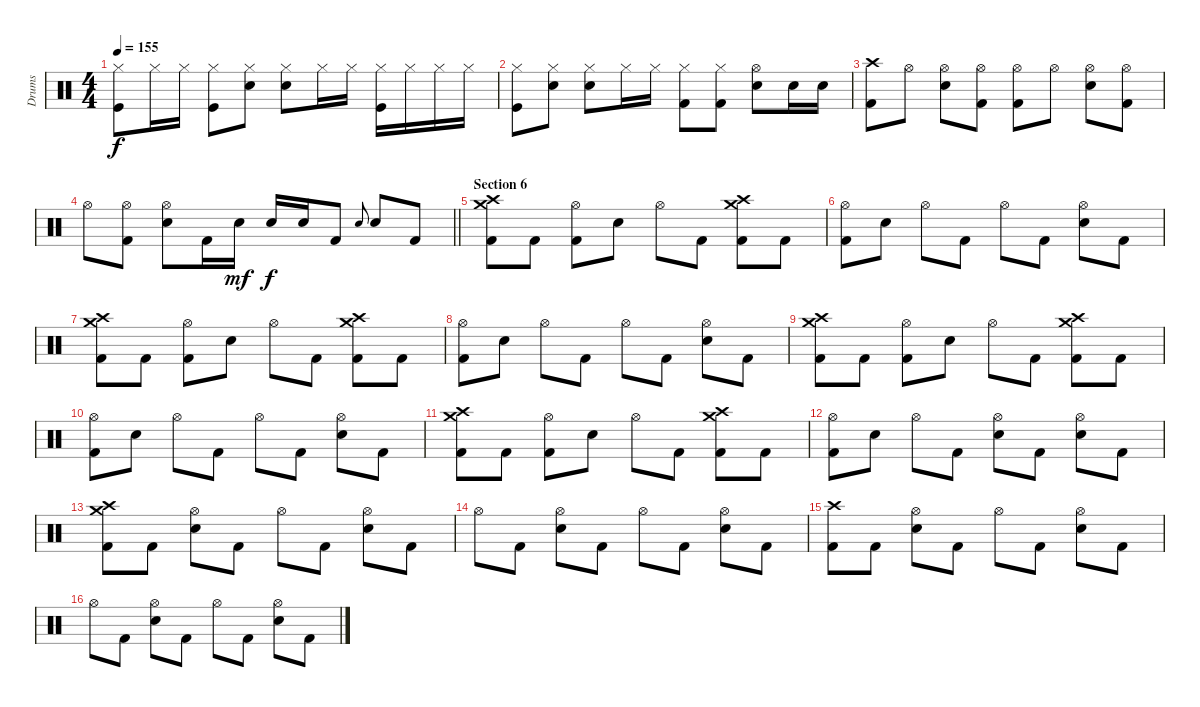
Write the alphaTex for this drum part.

\track ("Drums" "Drums") {instrument percussion}
\staff {score}
\articulation defaults
\ts (4 4)
\tempo 155
\clef neutral
\ks c
("Hi-Hat (closed)" "Kick (hit)").8{dy f} "Hi-Hat (closed)".16 "Hi-Hat (closed)".16 ("Hi-Hat (closed)" "Kick (hit)").8 ("Hi-Hat (closed)" "Electric Snare (hit)").8 ("Hi-Hat (closed)" "Electric Snare (hit)").8 "Hi-Hat (closed)".16 "Hi-Hat (closed)".16 ("Hi-Hat (closed)" "Kick (hit)").16 "Hi-Hat (closed)".16 "Hi-Hat (closed)".16 "Hi-Hat (closed)".16 |
("Hi-Hat (closed)" "Kick (hit)").8 ("Hi-Hat (closed)" "Electric Snare (hit)").8 ("Hi-Hat (closed)" "Electric Snare (hit)").8 "Hi-Hat (closed)".16 "Hi-Hat (closed)".16 ("Hi-Hat (closed)" "Kick (hit) 2").8 ("Hi-Hat (closed)" "Kick (hit) 2").8 ("Hi-Hat (open)" "Electric Snare (hit)").8 "Electric Snare (hit)".16 "Electric Snare (hit)".16 |
("Crash high (hit)" "Kick (hit) 2").8 "Hi-Hat (open)".8 ("Hi-Hat (open)" "Electric Snare (hit)").8 ("Hi-Hat (open)" "Kick (hit) 2").8 ("Hi-Hat (open)" "Kick (hit) 2").8 "Hi-Hat (open)".8 ("Hi-Hat (open)" "Electric Snare (hit)").8 ("Hi-Hat (open)" "Kick (hit) 2").8 |
\barLineRight lightlight "Hi-Hat (open)".8
("Hi-Hat (open)" "Kick (hit) 2").8 ("Hi-Hat (open)" "Electric Snare (hit)").8 "Kick (hit) 2".16 "Electric Snare (hit)".16{dy mf} "Electric Snare (hit)".16{dy f} "Electric Snare (hit)".16 "Kick (hit) 2".8 "Electric Snare (hit)".8{gr onbeat} "Electric Snare (hit)".8 "Kick (hit) 2".8 |
\section ("" "Section 6")
("Crash medium (hit)" "Crash high (hit)" "Kick (hit) 2").8 "Kick (hit) 2".8 ("Hi-Hat (open)" "Kick (hit) 2").8 "Electric Snare (hit)".8 "Hi-Hat (open)".8 "Kick (hit) 2".8 ("Crash high (hit)" "Crash medium (hit)" "Kick (hit) 2").8 "Kick (hit) 2".8 |
("Hi-Hat (open)" "Kick (hit) 2").8 "Electric Snare (hit)".8 "Hi-Hat (open)".8 "Kick (hit) 2".8 "Hi-Hat (open)".8 "Kick (hit) 2".8 ("Hi-Hat (open)" "Electric Snare (hit)").8 "Kick (hit) 2".8 |
("Crash medium (hit)" "Crash high (hit)" "Kick (hit) 2").8 "Kick (hit) 2".8 ("Hi-Hat (open)" "Kick (hit) 2").8 "Electric Snare (hit)".8 "Hi-Hat (open)".8 "Kick (hit) 2".8 ("Crash high (hit)" "Crash medium (hit)" "Kick (hit) 2").8 "Kick (hit) 2".8 |
("Hi-Hat (open)" "Kick (hit) 2").8 "Electric Snare (hit)".8 "Hi-Hat (open)".8 "Kick (hit) 2".8 "Hi-Hat (open)".8 "Kick (hit) 2".8 ("Hi-Hat (open)" "Electric Snare (hit)").8 "Kick (hit) 2".8 |
("Crash medium (hit)" "Crash high (hit)" "Kick (hit) 2").8 "Kick (hit) 2".8 ("Hi-Hat (open)" "Kick (hit) 2").8 "Electric Snare (hit)".8 "Hi-Hat (open)".8 "Kick (hit) 2".8 ("Crash high (hit)" "Crash medium (hit)" "Kick (hit) 2").8 "Kick (hit) 2".8 |
("Hi-Hat (open)" "Kick (hit) 2").8 "Electric Snare (hit)".8 "Hi-Hat (open)".8 "Kick (hit) 2".8 "Hi-Hat (open)".8 "Kick (hit) 2".8 ("Hi-Hat (open)" "Electric Snare (hit)").8 "Kick (hit) 2".8 |
("Crash medium (hit)" "Crash high (hit)" "Kick (hit) 2").8 "Kick (hit) 2".8 ("Hi-Hat (open)" "Kick (hit) 2").8 "Electric Snare (hit)".8 "Hi-Hat (open)".8 "Kick (hit) 2".8 ("Crash high (hit)" "Crash medium (hit)" "Kick (hit) 2").8 "Kick (hit) 2".8 |
("Hi-Hat (open)" "Kick (hit) 2").8 "Electric Snare (hit)".8 "Hi-Hat (open)".8 "Kick (hit) 2".8 ("Hi-Hat (open)" "Electric Snare (hit)").8 "Kick (hit) 2".8 ("Hi-Hat (open)" "Electric Snare (hit)").8 "Kick (hit) 2".8 |
("Crash high (hit)" "Crash medium (hit)" "Kick (hit) 2").8 "Kick (hit) 2".8 ("Hi-Hat (open)" "Electric Snare (hit)").8 "Kick (hit) 2".8 "Hi-Hat (open)".8 "Kick (hit) 2".8 ("Hi-Hat (open)" "Electric Snare (hit)").8 "Kick (hit) 2".8 |
"Hi-Hat (open)".8 "Kick (hit) 2".8 ("Hi-Hat (open)" "Electric Snare (hit)").8 "Kick (hit) 2".8 "Hi-Hat (open)".8 "Kick (hit) 2".8 ("Hi-Hat (open)" "Electric Snare (hit)").8 "Kick (hit) 2".8 |
("Crash high (hit)" "Kick (hit) 2").8 "Kick (hit) 2".8 ("Hi-Hat (open)" "Electric Snare (hit)").8 "Kick (hit) 2".8 "Hi-Hat (open)".8 "Kick (hit) 2".8 ("Hi-Hat (open)" "Electric Snare (hit)").8 "Kick (hit) 2".8 |
"Hi-Hat (open)".8 "Kick (hit) 2".8 ("Hi-Hat (open)" "Electric Snare (hit)").8 "Kick (hit) 2".8 "Hi-Hat (open)".8 "Kick (hit) 2".8 ("Hi-Hat (open)" "Electric Snare (hit)").8 "Kick (hit) 2".8
